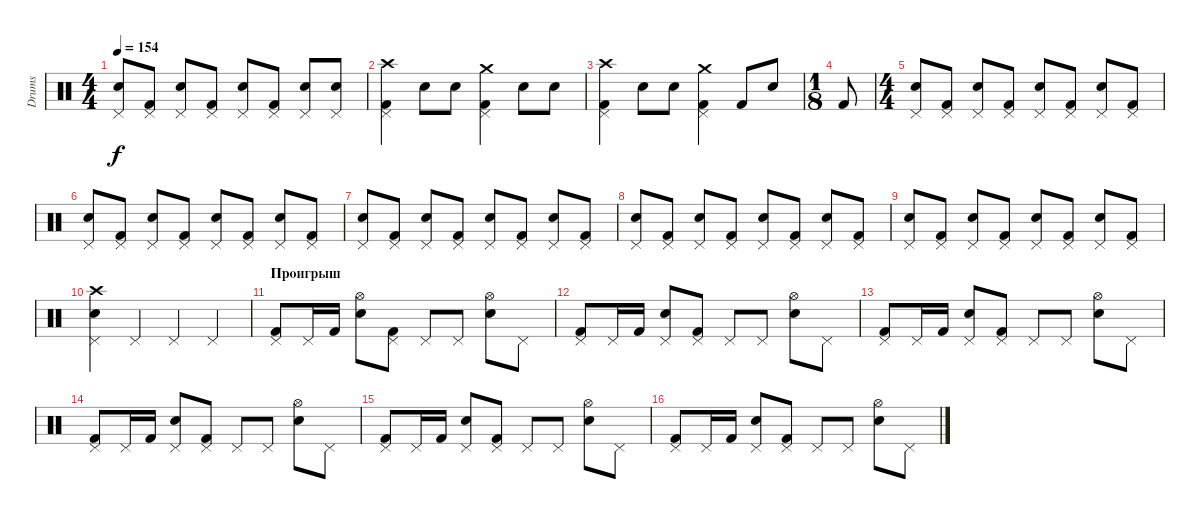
\track ("Drums" "Drums") {instrument percussion}
\staff {score}
\articulation defaults
\ts (4 4)
\tempo 154
\clef neutral
\ks c
("Electric Snare (hit)" "Pedal Hi-Hat (hit)").8{dy f} ("Kick (hit) 2" "Pedal Hi-Hat (hit)").8 ("Electric Snare (hit)" "Pedal Hi-Hat (hit)").8 ("Kick (hit) 2" "Pedal Hi-Hat (hit)").8 ("Electric Snare (hit)" "Pedal Hi-Hat (hit)").8 ("Kick (hit) 2" "Pedal Hi-Hat (hit)").8 ("Electric Snare (hit)" "Pedal Hi-Hat (hit)").8 ("Electric Snare (hit)" "Pedal Hi-Hat (hit)").8 |
("Crash high (hit)" "Kick (hit) 2" "Pedal Hi-Hat (hit)").4 "Electric Snare (hit)".8 "Electric Snare (hit)".8 ("Crash medium (hit)" "Kick (hit) 2" "Pedal Hi-Hat (hit)").4 "Electric Snare (hit)".8 "Electric Snare (hit)".8 |
("Crash high (hit)" "Kick (hit) 2" "Pedal Hi-Hat (hit)").4 "Electric Snare (hit)".8 "Electric Snare (hit)".8 ("Crash medium (hit)" "Kick (hit) 2" "Pedal Hi-Hat (hit)").4 "Kick (hit) 2".8 "Electric Snare (hit)".8 |
\ts (1 8)
"Kick (hit) 2".8 |
\ts (4 4)
("Electric Snare (hit)" "Pedal Hi-Hat (hit)").8 ("Kick (hit) 2" "Pedal Hi-Hat (hit)").8 ("Electric Snare (hit)" "Pedal Hi-Hat (hit)").8 ("Kick (hit) 2" "Pedal Hi-Hat (hit)").8 ("Electric Snare (hit)" "Pedal Hi-Hat (hit)").8 ("Kick (hit) 2" "Pedal Hi-Hat (hit)").8 ("Electric Snare (hit)" "Pedal Hi-Hat (hit)").8 ("Kick (hit) 2" "Pedal Hi-Hat (hit)").8 |
("Electric Snare (hit)" "Pedal Hi-Hat (hit)").8 ("Kick (hit) 2" "Pedal Hi-Hat (hit)").8 ("Electric Snare (hit)" "Pedal Hi-Hat (hit)").8 ("Kick (hit) 2" "Pedal Hi-Hat (hit)").8 ("Electric Snare (hit)" "Pedal Hi-Hat (hit)").8 ("Kick (hit) 2" "Pedal Hi-Hat (hit)").8 ("Electric Snare (hit)" "Pedal Hi-Hat (hit)").8 ("Kick (hit) 2" "Pedal Hi-Hat (hit)").8 |
("Electric Snare (hit)" "Pedal Hi-Hat (hit)").8 ("Kick (hit) 2" "Pedal Hi-Hat (hit)").8 ("Electric Snare (hit)" "Pedal Hi-Hat (hit)").8 ("Kick (hit) 2" "Pedal Hi-Hat (hit)").8 ("Electric Snare (hit)" "Pedal Hi-Hat (hit)").8 ("Kick (hit) 2" "Pedal Hi-Hat (hit)").8 ("Electric Snare (hit)" "Pedal Hi-Hat (hit)").8 ("Kick (hit) 2" "Pedal Hi-Hat (hit)").8 |
("Electric Snare (hit)" "Pedal Hi-Hat (hit)").8 ("Kick (hit) 2" "Pedal Hi-Hat (hit)").8 ("Electric Snare (hit)" "Pedal Hi-Hat (hit)").8 ("Kick (hit) 2" "Pedal Hi-Hat (hit)").8 ("Electric Snare (hit)" "Pedal Hi-Hat (hit)").8 ("Kick (hit) 2" "Pedal Hi-Hat (hit)").8 ("Electric Snare (hit)" "Pedal Hi-Hat (hit)").8 ("Kick (hit) 2" "Pedal Hi-Hat (hit)").8 |
("Electric Snare (hit)" "Pedal Hi-Hat (hit)").8 ("Kick (hit) 2" "Pedal Hi-Hat (hit)").8 ("Electric Snare (hit)" "Pedal Hi-Hat (hit)").8 ("Kick (hit) 2" "Pedal Hi-Hat (hit)").8 ("Electric Snare (hit)" "Pedal Hi-Hat (hit)").8 ("Kick (hit) 2" "Pedal Hi-Hat (hit)").8 ("Electric Snare (hit)" "Pedal Hi-Hat (hit)").8 ("Kick (hit) 2" "Pedal Hi-Hat (hit)").8 |
("Crash high (hit)" "Electric Snare (hit)" "Pedal Hi-Hat (hit)").4 "Pedal Hi-Hat (hit)".4 "Pedal Hi-Hat (hit)".4 "Pedal Hi-Hat (hit)".4 |
\section ("" "Проигрыш")
("Pedal Hi-Hat (hit)" "Kick (hit) 2").8 "Pedal Hi-Hat (hit)".16 "Kick (hit) 2".16 ("Hi-Hat (open)" "Electric Snare (hit)").8 ("Pedal Hi-Hat (hit)" "Kick (hit) 2").8 "Pedal Hi-Hat (hit)".8 "Pedal Hi-Hat (hit)".8 ("Hi-Hat (open)" "Electric Snare (hit)").8 "Pedal Hi-Hat (hit)".8 |
("Pedal Hi-Hat (hit)" "Kick (hit) 2").8 "Pedal Hi-Hat (hit)".16 "Kick (hit) 2".16 ("Pedal Hi-Hat (hit)" "Electric Snare (hit)").8 ("Pedal Hi-Hat (hit)" "Kick (hit) 2").8 "Pedal Hi-Hat (hit)".8 "Pedal Hi-Hat (hit)".8 ("Hi-Hat (open)" "Electric Snare (hit)").8 "Pedal Hi-Hat (hit)".8 |
("Pedal Hi-Hat (hit)" "Kick (hit) 2").8 "Pedal Hi-Hat (hit)".16 "Kick (hit) 2".16 ("Pedal Hi-Hat (hit)" "Electric Snare (hit)").8 ("Pedal Hi-Hat (hit)" "Kick (hit) 2").8 "Pedal Hi-Hat (hit)".8 "Pedal Hi-Hat (hit)".8 ("Hi-Hat (open)" "Electric Snare (hit)").8 "Pedal Hi-Hat (hit)".8 |
("Pedal Hi-Hat (hit)" "Kick (hit) 2").8 "Pedal Hi-Hat (hit)".16 "Kick (hit) 2".16 ("Pedal Hi-Hat (hit)" "Electric Snare (hit)").8 ("Pedal Hi-Hat (hit)" "Kick (hit) 2").8 "Pedal Hi-Hat (hit)".8 "Pedal Hi-Hat (hit)".8 ("Hi-Hat (open)" "Electric Snare (hit)").8 "Pedal Hi-Hat (hit)".8 |
("Pedal Hi-Hat (hit)" "Kick (hit) 2").8 "Pedal Hi-Hat (hit)".16 "Kick (hit) 2".16 ("Pedal Hi-Hat (hit)" "Electric Snare (hit)").8 ("Pedal Hi-Hat (hit)" "Kick (hit) 2").8 "Pedal Hi-Hat (hit)".8 "Pedal Hi-Hat (hit)".8 ("Hi-Hat (open)" "Electric Snare (hit)").8 "Pedal Hi-Hat (hit)".8 |
("Pedal Hi-Hat (hit)" "Kick (hit) 2").8 "Pedal Hi-Hat (hit)".16 "Kick (hit) 2".16 ("Pedal Hi-Hat (hit)" "Electric Snare (hit)").8 ("Pedal Hi-Hat (hit)" "Kick (hit) 2").8 "Pedal Hi-Hat (hit)".8 "Pedal Hi-Hat (hit)".8 ("Hi-Hat (open)" "Electric Snare (hit)").8 "Pedal Hi-Hat (hit)".8
